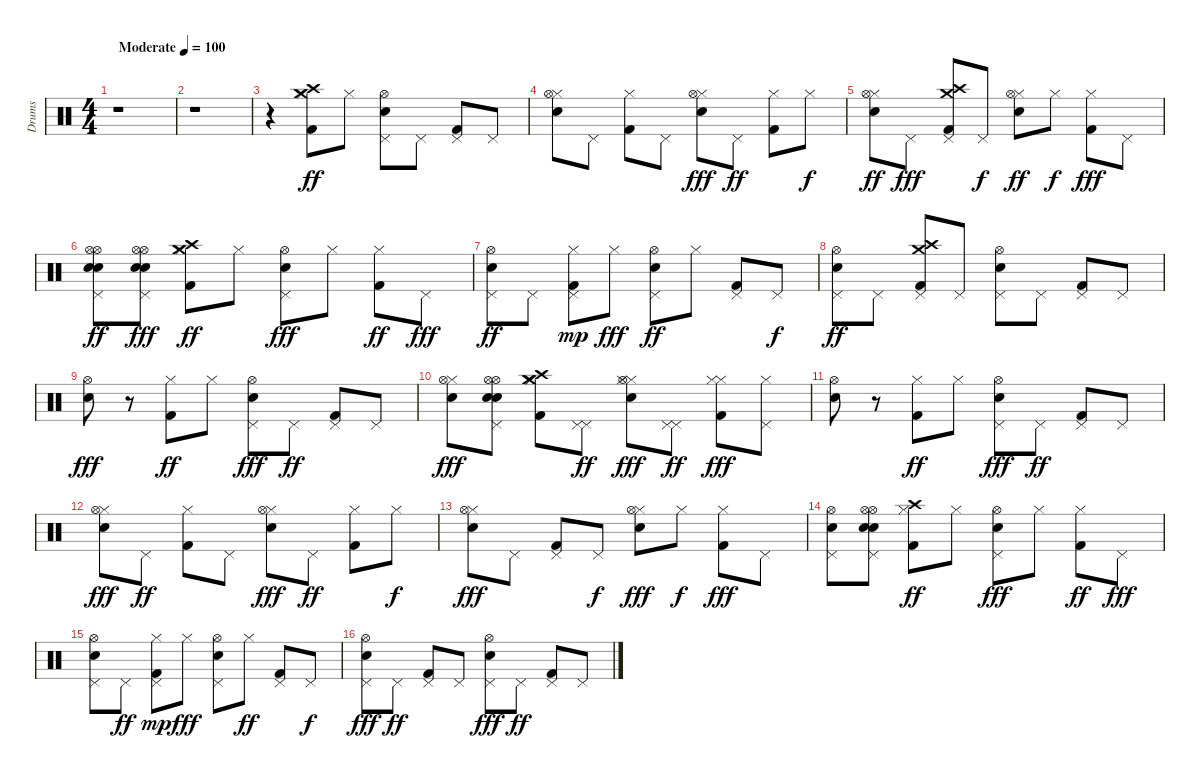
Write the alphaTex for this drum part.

\track ("Drums" "Drums") {instrument percussion}
\staff {score}
\articulation defaults
\ts (4 4)
\tempo (100 "Moderate")
\clef neutral
\ks c
r.1{dy ff} |
r.1 |
r.4 ("Kick (hit) 2" "Crash medium (hit)" "Crash high (hit)" "Hi-Hat (closed)").8 "Hi-Hat (closed)".8 ("Snare (hit) 2" "Pedal Hi-Hat (hit)" "Hi-Hat (open)").8 "Pedal Hi-Hat (hit)".8 ("Kick (hit) 2" "Pedal Hi-Hat (hit)").8 "Pedal Hi-Hat (hit)".8 |
("Snare (hit) 2" "Hi-Hat (closed)" "Hi-Hat (open)").8 "Pedal Hi-Hat (hit)".8 ("Kick (hit) 2" "Hi-Hat (closed)").8 "Pedal Hi-Hat (hit)".8 ("Snare (hit) 2" "Hi-Hat (closed)" "Hi-Hat (open)").8{dy fff} "Pedal Hi-Hat (hit)".8{dy ff} ("Kick (hit) 2" "Hi-Hat (closed)").8 "Hi-Hat (closed)".8{dy f} |
("Snare (hit) 2" "Hi-Hat (closed)" "Hi-Hat (open)").8{dy ff} "Pedal Hi-Hat (hit)".8{dy fff} ("Kick (hit) 2" "Crash medium (hit)" "Crash high (hit)" "Pedal Hi-Hat (hit)").8 "Pedal Hi-Hat (hit)".8{dy f} ("Snare (hit) 2" "Hi-Hat (closed)" "Hi-Hat (open)").8{dy ff} "Hi-Hat (closed)".8{dy f} ("Kick (hit) 2" "Hi-Hat (closed)").8{dy fff} "Pedal Hi-Hat (hit)".8 |
("Snare (hit) 2" "Pedal Hi-Hat (hit)" "Hi-Hat (open)" "Snare (hit) 2" "Hi-Hat (open)").8{dy ff} ("Snare (hit) 2" "Pedal Hi-Hat (hit)" "Hi-Hat (open)" "Snare (hit) 2" "Hi-Hat (open)").8{dy fff} ("Kick (hit) 2" "Crash medium (hit)" "Crash high (hit)" "Hi-Hat (closed)").8{dy ff} "Hi-Hat (closed)".8 ("Snare (hit) 2" "Pedal Hi-Hat (hit)" "Hi-Hat (open)").8{dy fff} "Hi-Hat (closed)".8 ("Kick (hit) 2" "Hi-Hat (closed)").8{dy ff} "Pedal Hi-Hat (hit)".8{dy fff} |
("Snare (hit) 2" "Pedal Hi-Hat (hit)" "Hi-Hat (open)").8{dy ff} "Pedal Hi-Hat (hit)".8 ("Kick (hit) 2" "Hi-Hat (closed)" "Pedal Hi-Hat (hit)").8{dy mp} "Hi-Hat (closed)".8{dy fff} ("Snare (hit) 2" "Pedal Hi-Hat (hit)" "Hi-Hat (open)").8{dy ff} "Hi-Hat (closed)".8 ("Kick (hit) 2" "Pedal Hi-Hat (hit)").8 "Pedal Hi-Hat (hit)".8{dy f} |
("Snare (hit) 2" "Pedal Hi-Hat (hit)" "Hi-Hat (open)").8{dy ff} "Pedal Hi-Hat (hit)".8 ("Kick (hit) 2" "Crash medium (hit)" "Crash high (hit)" "Pedal Hi-Hat (hit)").8 "Pedal Hi-Hat (hit)".8 ("Snare (hit) 2" "Pedal Hi-Hat (hit)" "Hi-Hat (open)").8 "Pedal Hi-Hat (hit)".8 ("Kick (hit) 2" "Pedal Hi-Hat (hit)").8 "Pedal Hi-Hat (hit)".8 |
("Snare (hit) 2" "Hi-Hat (open)").8{dy fff} r.8 ("Kick (hit) 2" "Hi-Hat (closed)").8{dy ff} "Hi-Hat (closed)".8 ("Snare (hit) 2" "Pedal Hi-Hat (hit)" "Hi-Hat (open)").8{dy fff} "Pedal Hi-Hat (hit)".8{dy ff} ("Kick (hit) 2" "Pedal Hi-Hat (hit)").8 "Pedal Hi-Hat (hit)".8 |
("Snare (hit) 2" "Hi-Hat (closed)" "Hi-Hat (open)").8{dy fff} ("Snare (hit) 2" "Pedal Hi-Hat (hit)" "Hi-Hat (open)" "Snare (hit) 2" "Hi-Hat (open)").8 ("Kick (hit) 2" "Crash high (hit)" "Crash medium (hit)" "Hi-Hat (closed)" "Hi-Hat (closed)").8 ("Pedal Hi-Hat (hit)" "Pedal Hi-Hat (hit)").8{dy ff} ("Snare (hit) 2" "Hi-Hat (closed)" "Hi-Hat (closed)" "Hi-Hat (open)").8{dy fff} ("Pedal Hi-Hat (hit)" "Pedal Hi-Hat (hit)").8{dy ff} ("Kick (hit) 2" "Hi-Hat (closed)" "Hi-Hat (closed)").8{dy fff} ("Hi-Hat (closed)" "Pedal Hi-Hat (hit)").8 |
("Snare (hit) 2" "Hi-Hat (open)").8 r.8 ("Kick (hit) 2" "Hi-Hat (closed)").8{dy ff} "Hi-Hat (closed)".8 ("Snare (hit) 2" "Pedal Hi-Hat (hit)" "Hi-Hat (open)").8{dy fff} "Pedal Hi-Hat (hit)".8{dy ff} ("Kick (hit) 2" "Pedal Hi-Hat (hit)").8 "Pedal Hi-Hat (hit)".8 |
("Snare (hit) 2" "Hi-Hat (closed)" "Hi-Hat (open)").8{dy fff} "Pedal Hi-Hat (hit)".8{dy ff} ("Kick (hit) 2" "Hi-Hat (closed)").8 "Pedal Hi-Hat (hit)".8 ("Snare (hit) 2" "Hi-Hat (closed)" "Hi-Hat (open)").8{dy fff} "Pedal Hi-Hat (hit)".8{dy ff} ("Kick (hit) 2" "Hi-Hat (closed)").8 "Hi-Hat (closed)".8{dy f} |
("Snare (hit) 2" "Hi-Hat (closed)" "Hi-Hat (open)").8{dy fff} "Pedal Hi-Hat (hit)".8 ("Kick (hit) 2" "Pedal Hi-Hat (hit)").8 "Pedal Hi-Hat (hit)".8{dy f} ("Snare (hit) 2" "Hi-Hat (closed)" "Hi-Hat (open)").8{dy fff} "Hi-Hat (closed)".8{dy f} ("Kick (hit) 2" "Hi-Hat (closed)").8{dy fff} "Pedal Hi-Hat (hit)".8 |
("Snare (hit) 2" "Pedal Hi-Hat (hit)" "Hi-Hat (open)").8 ("Snare (hit) 2" "Pedal Hi-Hat (hit)" "Hi-Hat (open)" "Snare (hit) 2" "Hi-Hat (open)").8 ("Kick (hit) 2" "Crash high (hit)" "Hi-Hat (closed)").8{dy ff} "Hi-Hat (closed)".8 ("Snare (hit) 2" "Pedal Hi-Hat (hit)" "Hi-Hat (open)").8{dy fff} "Hi-Hat (closed)".8 ("Kick (hit) 2" "Hi-Hat (closed)").8{dy ff} "Pedal Hi-Hat (hit)".8{dy fff} |
("Snare (hit) 2" "Pedal Hi-Hat (hit)" "Hi-Hat (open)").8 "Pedal Hi-Hat (hit)".8{dy ff} ("Kick (hit) 2" "Hi-Hat (closed)" "Pedal Hi-Hat (hit)").8{dy mp} "Hi-Hat (closed)".8{dy fff} ("Snare (hit) 2" "Pedal Hi-Hat (hit)" "Hi-Hat (open)").8 "Hi-Hat (closed)".8{dy ff} ("Kick (hit) 2" "Pedal Hi-Hat (hit)").8 "Pedal Hi-Hat (hit)".8{dy f} |
("Snare (hit) 2" "Pedal Hi-Hat (hit)" "Hi-Hat (open)").8{dy fff} "Pedal Hi-Hat (hit)".8{dy ff} ("Kick (hit) 2" "Pedal Hi-Hat (hit)").8 "Pedal Hi-Hat (hit)".8 ("Snare (hit) 2" "Pedal Hi-Hat (hit)" "Hi-Hat (open)").8{dy fff} "Pedal Hi-Hat (hit)".8{dy ff} ("Kick (hit) 2" "Pedal Hi-Hat (hit)").8 "Pedal Hi-Hat (hit)".8
